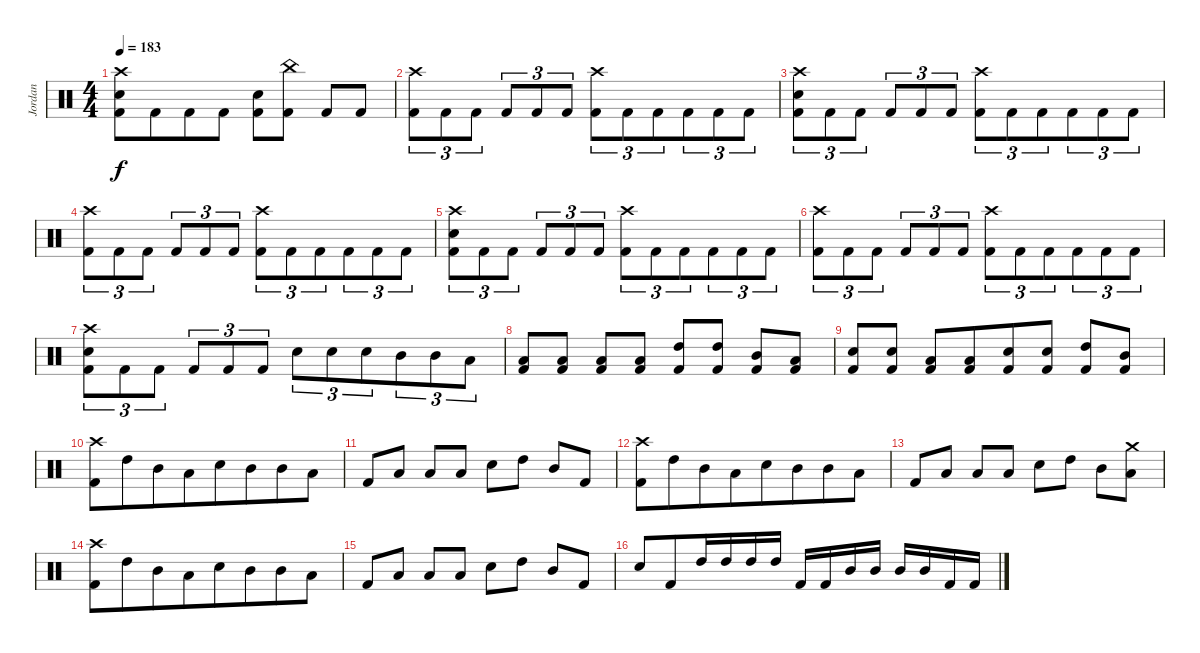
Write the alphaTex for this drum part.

\track ("Jordan" "Jordan") {instrument percussion bank 82}
\staff {score}
\articulation defaults
\ts (4 4)
\tempo 183
\clef neutral
\ks c
("Crash high (hit)" "Snare (hit) 2" "Kick (hit) 2").8{dy f beam merge} "Kick (hit) 2".8{beam merge} "Kick (hit) 2".8 "Kick (hit) 2".8 ("Snare (hit) 2" "Kick (hit) 2").8 ("China (hit)" "Kick (hit) 2").8 "Kick (hit) 2".8 "Kick (hit) 2".8 |
("Crash high (hit)" "Kick (hit) 2").8{tu (3 2) beam merge} "Kick (hit) 2".8{tu (3 2) beam merge} "Kick (hit) 2".8{tu (3 2)} "Kick (hit) 2".8{tu (3 2)} "Kick (hit) 2".8{tu (3 2)} "Kick (hit) 2".8{tu (3 2)} ("Crash high (hit)" "Kick (hit) 2").8{tu (3 2)} "Kick (hit) 2".8{tu (3 2) beam merge} "Kick (hit) 2".8{tu (3 2) beam merge} "Kick (hit) 2".8{tu (3 2) beam merge} "Kick (hit) 2".8{tu (3 2) beam merge} "Kick (hit) 2".8{tu (3 2)} |
("Crash high (hit)" "Snare (hit) 2" "Kick (hit) 2").8{tu (3 2) beam merge} "Kick (hit) 2".8{tu (3 2) beam merge} "Kick (hit) 2".8{tu (3 2)} "Kick (hit) 2".8{tu (3 2)} "Kick (hit) 2".8{tu (3 2)} "Kick (hit) 2".8{tu (3 2)} ("Crash high (hit)" "Kick (hit) 2").8{tu (3 2)} "Kick (hit) 2".8{tu (3 2) beam merge} "Kick (hit) 2".8{tu (3 2) beam merge} "Kick (hit) 2".8{tu (3 2) beam merge} "Kick (hit) 2".8{tu (3 2) beam merge} "Kick (hit) 2".8{tu (3 2)} |
("Crash high (hit)" "Kick (hit) 2").8{tu (3 2) beam merge} "Kick (hit) 2".8{tu (3 2) beam merge} "Kick (hit) 2".8{tu (3 2)} "Kick (hit) 2".8{tu (3 2)} "Kick (hit) 2".8{tu (3 2)} "Kick (hit) 2".8{tu (3 2)} ("Crash high (hit)" "Kick (hit) 2").8{tu (3 2)} "Kick (hit) 2".8{tu (3 2) beam merge} "Kick (hit) 2".8{tu (3 2) beam merge} "Kick (hit) 2".8{tu (3 2) beam merge} "Kick (hit) 2".8{tu (3 2) beam merge} "Kick (hit) 2".8{tu (3 2)} |
("Crash high (hit)" "Snare (hit) 2" "Kick (hit) 2").8{tu (3 2) beam merge} "Kick (hit) 2".8{tu (3 2) beam merge} "Kick (hit) 2".8{tu (3 2)} "Kick (hit) 2".8{tu (3 2)} "Kick (hit) 2".8{tu (3 2)} "Kick (hit) 2".8{tu (3 2)} ("Crash high (hit)" "Kick (hit) 2").8{tu (3 2)} "Kick (hit) 2".8{tu (3 2) beam merge} "Kick (hit) 2".8{tu (3 2) beam merge} "Kick (hit) 2".8{tu (3 2) beam merge} "Kick (hit) 2".8{tu (3 2) beam merge} "Kick (hit) 2".8{tu (3 2)} |
("Crash high (hit)" "Kick (hit) 2").8{tu (3 2) beam merge} "Kick (hit) 2".8{tu (3 2) beam merge} "Kick (hit) 2".8{tu (3 2)} "Kick (hit) 2".8{tu (3 2)} "Kick (hit) 2".8{tu (3 2)} "Kick (hit) 2".8{tu (3 2)} ("Crash high (hit)" "Kick (hit) 2").8{tu (3 2)} "Kick (hit) 2".8{tu (3 2) beam merge} "Kick (hit) 2".8{tu (3 2) beam merge} "Kick (hit) 2".8{tu (3 2) beam merge} "Kick (hit) 2".8{tu (3 2) beam merge} "Kick (hit) 2".8{tu (3 2)} |
("Crash high (hit)" "Snare (hit) 2" "Kick (hit) 2").8{tu (3 2) beam merge} "Kick (hit) 2".8{tu (3 2) beam merge} "Kick (hit) 2".8{tu (3 2)} "Kick (hit) 2".8{tu (3 2)} "Kick (hit) 2".8{tu (3 2)} "Kick (hit) 2".8{tu (3 2)} "Snare (hit) 2".8{tu (3 2)} "Snare (hit) 2".8{tu (3 2) beam merge} "Snare (hit) 2".8{tu (3 2) beam merge} "Mid Tom (hit)".8{tu (3 2) beam merge} "Mid Tom (hit)".8{tu (3 2) beam merge} "Low Tom (hit)".8{tu (3 2)} |
("Low Tom (hit)" "Kick (hit) 2").8{beam merge} ("Low Tom (hit)" "Kick (hit) 2").8 ("Low Tom (hit)" "Kick (hit) 2").8 ("Low Tom (hit)" "Kick (hit) 2").8 ("High Tom (hit)" "Kick (hit) 2").8 ("High Tom (hit)" "Kick (hit) 2").8 ("Mid Tom (hit)" "Kick (hit) 2").8 ("Low Tom (hit)" "Kick (hit) 2").8 |
("Snare (hit) 2" "Kick (hit) 2").8 ("Snare (hit) 2" "Kick (hit) 2").8 ("Low Tom (hit)" "Kick (hit) 2").8{beam merge} ("Low Tom (hit)" "Kick (hit) 2").8{beam merge} ("Snare (hit) 2" "Kick (hit) 2").8 ("Snare (hit) 2" "Kick (hit) 2").8 ("High Tom (hit)" "Kick (hit) 2").8{beam merge} ("Mid Tom (hit)" "Kick (hit) 2").8 |
("Crash high (hit)" "Kick (hit) 2").8{beam merge} "High Tom (hit)".8{beam merge} "Mid Tom (hit)".8 "Low Tom (hit)".8{beam merge} "Snare (hit) 2".8 "Mid Tom (hit)".8{beam merge} "Mid Tom (hit)".8{beam merge} "Low Tom (hit)".8 |
"Kick (hit) 2".8 "Low Tom (hit)".8 "Low Tom (hit)".8{beam merge} "Low Tom (hit)".8 "Snare (hit) 2".8 "High Tom (hit)".8 "Mid Tom (hit)".8 "Kick (hit) 2".8 |
("Crash high (hit)" "Kick (hit) 2").8{beam merge} "High Tom (hit)".8{beam merge} "Mid Tom (hit)".8 "Low Tom (hit)".8{beam merge} "Snare (hit) 2".8 "Mid Tom (hit)".8{beam merge} "Mid Tom (hit)".8{beam merge} "Low Tom (hit)".8 |
"Kick (hit) 2".8 "Low Tom (hit)".8 "Low Tom (hit)".8{beam merge} "Low Tom (hit)".8 "Snare (hit) 2".8 "High Tom (hit)".8 "Mid Tom (hit)".8{beam merge} ("Crash medium (hit)" "Low Tom (hit)").8 |
("Crash high (hit)" "Kick (hit) 2").8{beam merge} "High Tom (hit)".8{beam merge} "Mid Tom (hit)".8 "Low Tom (hit)".8{beam merge} "Snare (hit) 2".8 "Mid Tom (hit)".8{beam merge} "Mid Tom (hit)".8{beam merge} "Low Tom (hit)".8 |
"Kick (hit) 2".8 "Low Tom (hit)".8 "Low Tom (hit)".8{beam merge} "Low Tom (hit)".8 "Snare (hit) 2".8 "High Tom (hit)".8 "Mid Tom (hit)".8 "Kick (hit) 2".8 |
"Snare (hit) 2".8{beam merge} "Kick (hit) 2".8{beam merge} "High Tom (hit)".16{beam merge} "High Tom (hit)".16 "High Tom (hit)".16 "High Tom (hit)".16 "Kick (hit) 2".16{beam merge} "Kick (hit) 2".16{beam merge} "Mid Tom (hit)".16{beam merge} "Mid Tom (hit)".16 "Mid Tom (hit)".16{beam merge} "Mid Tom (hit)".16{beam merge} "Kick (hit) 2".16{beam merge} "Kick (hit) 2".16
